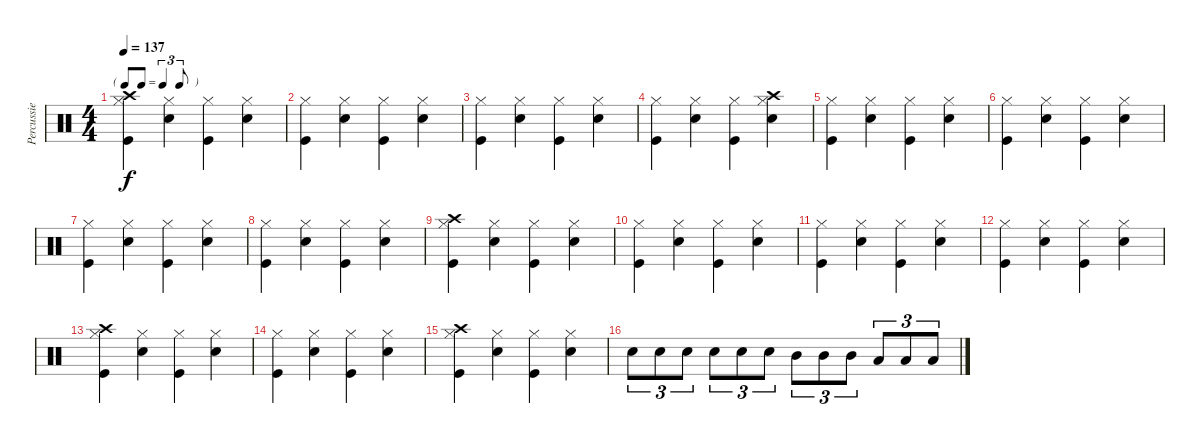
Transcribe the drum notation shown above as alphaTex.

\track ("Percussie" "Percussie") {instrument percussion}
\staff {score}
\articulation defaults
\ts (4 4)
\tf triplet8th
\tempo 137
\clef neutral
\ks c
("Hi-Hat (closed)" "Crash high (hit)" "Kick (hit)").4{dy f} ("Hi-Hat (closed)" "Snare (hit) 2").4 ("Hi-Hat (closed)" "Kick (hit)").4 ("Hi-Hat (closed)" "Snare (hit) 2").4 |
("Hi-Hat (closed)" "Kick (hit)").4 ("Hi-Hat (closed)" "Snare (hit) 2").4 ("Hi-Hat (closed)" "Kick (hit)").4 ("Hi-Hat (closed)" "Snare (hit) 2").4 |
("Hi-Hat (closed)" "Kick (hit)").4 ("Hi-Hat (closed)" "Snare (hit) 2").4 ("Hi-Hat (closed)" "Kick (hit)").4 ("Hi-Hat (closed)" "Snare (hit) 2").4 |
("Hi-Hat (closed)" "Kick (hit)").4 ("Hi-Hat (closed)" "Snare (hit) 2").4 ("Hi-Hat (closed)" "Kick (hit)").4 ("Hi-Hat (closed)" "Crash high (hit)" "Snare (hit) 2").4 |
("Hi-Hat (closed)" "Kick (hit)").4 ("Hi-Hat (closed)" "Snare (hit) 2").4 ("Hi-Hat (closed)" "Kick (hit)").4 ("Hi-Hat (closed)" "Snare (hit) 2").4 |
("Hi-Hat (closed)" "Kick (hit)").4 ("Hi-Hat (closed)" "Snare (hit) 2").4 ("Hi-Hat (closed)" "Kick (hit)").4 ("Hi-Hat (closed)" "Snare (hit) 2").4 |
("Hi-Hat (closed)" "Kick (hit)").4 ("Hi-Hat (closed)" "Snare (hit) 2").4 ("Hi-Hat (closed)" "Kick (hit)").4 ("Hi-Hat (closed)" "Snare (hit) 2").4 |
("Hi-Hat (closed)" "Kick (hit)").4 ("Hi-Hat (closed)" "Snare (hit) 2").4 ("Hi-Hat (closed)" "Kick (hit)").4 ("Hi-Hat (closed)" "Snare (hit) 2").4 |
("Hi-Hat (closed)" "Crash high (hit)" "Kick (hit)").4 ("Hi-Hat (closed)" "Snare (hit) 2").4 ("Hi-Hat (closed)" "Kick (hit)").4 ("Hi-Hat (closed)" "Snare (hit) 2").4 |
("Hi-Hat (closed)" "Kick (hit)").4 ("Hi-Hat (closed)" "Snare (hit) 2").4 ("Hi-Hat (closed)" "Kick (hit)").4 ("Hi-Hat (closed)" "Snare (hit) 2").4 |
("Hi-Hat (closed)" "Kick (hit)").4 ("Hi-Hat (closed)" "Snare (hit) 2").4 ("Hi-Hat (closed)" "Kick (hit)").4 ("Hi-Hat (closed)" "Snare (hit) 2").4 |
("Hi-Hat (closed)" "Kick (hit)").4 ("Hi-Hat (closed)" "Snare (hit) 2").4 ("Hi-Hat (closed)" "Kick (hit)").4 ("Hi-Hat (closed)" "Snare (hit) 2").4 |
("Hi-Hat (closed)" "Crash high (hit)" "Kick (hit)").4 ("Hi-Hat (closed)" "Snare (hit) 2").4 ("Hi-Hat (closed)" "Kick (hit)").4 ("Hi-Hat (closed)" "Snare (hit) 2").4 |
("Hi-Hat (closed)" "Kick (hit)").4 ("Hi-Hat (closed)" "Snare (hit) 2").4 ("Hi-Hat (closed)" "Kick (hit)").4 ("Hi-Hat (closed)" "Snare (hit) 2").4 |
("Hi-Hat (closed)" "Crash high (hit)" "Kick (hit)").4 ("Hi-Hat (closed)" "Snare (hit) 2").4 ("Hi-Hat (closed)" "Kick (hit)").4 ("Hi-Hat (closed)" "Snare (hit) 2").4 |
"Snare (hit) 2".8{tu (3 2)} "Snare (hit) 2".8{tu (3 2)} "Snare (hit) 2".8{tu (3 2)} "Snare (hit) 2".8{tu (3 2)} "Snare (hit) 2".8{tu (3 2)} "Snare (hit) 2".8{tu (3 2)} "Mid Tom (hit)".8{tu (3 2)} "Mid Tom (hit)".8{tu (3 2)} "Mid Tom (hit)".8{tu (3 2)} "Low Tom (hit)".8{tu (3 2)} "Low Tom (hit)".8{tu (3 2)} "Low Tom (hit)".8{tu (3 2)}
